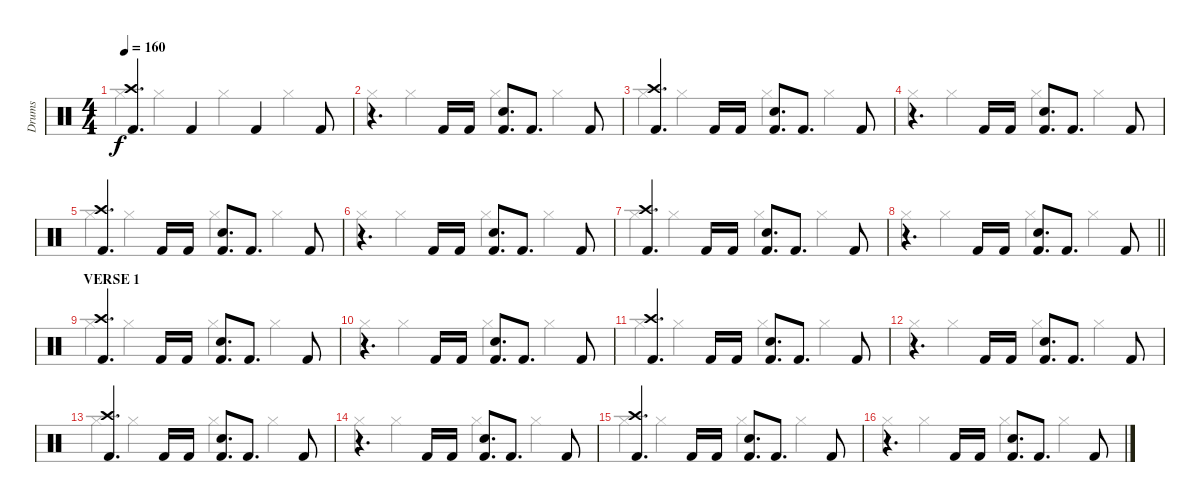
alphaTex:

\track ("Drums" "Drums") {instrument percussion}
\staff {score}
\articulation defaults
\voice
\ts (4 4)
\tempo 160
\clef neutral
\ks c
("Crash high (hit)" "Kick (hit) 2").4{d dy f} "Kick (hit) 2".4 "Kick (hit) 2".4 "Kick (hit) 2".8 |
r.4{d} "Kick (hit) 2".16 "Kick (hit) 2".16 ("Snare (hit) 2" "Kick (hit) 2").8{d} "Kick (hit) 2".8{d} "Kick (hit) 2".8 |
("Crash high (hit)" "Kick (hit) 2").4{d} "Kick (hit) 2".16 "Kick (hit) 2".16 ("Snare (hit) 2" "Kick (hit) 2").8{d} "Kick (hit) 2".8{d} "Kick (hit) 2".8 |
r.4{d} "Kick (hit) 2".16 "Kick (hit) 2".16 ("Snare (hit) 2" "Kick (hit) 2").8{d} "Kick (hit) 2".8{d} "Kick (hit) 2".8 |
("Crash high (hit)" "Kick (hit) 2").4{d} "Kick (hit) 2".16 "Kick (hit) 2".16 ("Snare (hit) 2" "Kick (hit) 2").8{d} "Kick (hit) 2".8{d} "Kick (hit) 2".8 |
r.4{d} "Kick (hit) 2".16 "Kick (hit) 2".16 ("Snare (hit) 2" "Kick (hit) 2").8{d} "Kick (hit) 2".8{d} "Kick (hit) 2".8 |
("Crash high (hit)" "Kick (hit) 2").4{d} "Kick (hit) 2".16 "Kick (hit) 2".16 ("Snare (hit) 2" "Kick (hit) 2").8{d} "Kick (hit) 2".8{d} "Kick (hit) 2".8 |
\barLineRight lightlight
r.4{d} "Kick (hit) 2".16 "Kick (hit) 2".16 ("Snare (hit) 2" "Kick (hit) 2").8{d} "Kick (hit) 2".8{d} "Kick (hit) 2".8 |
\section ("" "VERSE 1")
("Crash high (hit)" "Kick (hit) 2").4{d} "Kick (hit) 2".16 "Kick (hit) 2".16 ("Snare (hit) 2" "Kick (hit) 2").8{d} "Kick (hit) 2".8{d} "Kick (hit) 2".8 |
r.4{d} "Kick (hit) 2".16 "Kick (hit) 2".16 ("Snare (hit) 2" "Kick (hit) 2").8{d} "Kick (hit) 2".8{d} "Kick (hit) 2".8 |
("Crash high (hit)" "Kick (hit) 2").4{d} "Kick (hit) 2".16 "Kick (hit) 2".16 ("Snare (hit) 2" "Kick (hit) 2").8{d} "Kick (hit) 2".8{d} "Kick (hit) 2".8 |
r.4{d} "Kick (hit) 2".16 "Kick (hit) 2".16 ("Snare (hit) 2" "Kick (hit) 2").8{d} "Kick (hit) 2".8{d} "Kick (hit) 2".8 |
("Crash high (hit)" "Kick (hit) 2").4{d} "Kick (hit) 2".16 "Kick (hit) 2".16 ("Snare (hit) 2" "Kick (hit) 2").8{d} "Kick (hit) 2".8{d} "Kick (hit) 2".8 |
r.4{d} "Kick (hit) 2".16 "Kick (hit) 2".16 ("Snare (hit) 2" "Kick (hit) 2").8{d} "Kick (hit) 2".8{d} "Kick (hit) 2".8 |
("Crash high (hit)" "Kick (hit) 2").4{d} "Kick (hit) 2".16 "Kick (hit) 2".16 ("Snare (hit) 2" "Kick (hit) 2").8{d} "Kick (hit) 2".8{d} "Kick (hit) 2".8 |
r.4{d} "Kick (hit) 2".16 "Kick (hit) 2".16 ("Snare (hit) 2" "Kick (hit) 2").8{d} "Kick (hit) 2".8{d} "Kick (hit) 2".8
\voice
\clef neutral
\ottava regular
\simile none
\ks c "Hi-Hat (closed)".4{dy f} "Hi-Hat (closed)".4 "Hi-Hat (closed)".4 "Hi-Hat (closed)".4
|
"Hi-Hat (closed)".4 "Hi-Hat (closed)".4 "Hi-Hat (closed)".4 "Hi-Hat (closed)".4 |
"Hi-Hat (closed)".4 "Hi-Hat (closed)".4 "Hi-Hat (closed)".4 "Hi-Hat (closed)".4 |
"Hi-Hat (closed)".4 "Hi-Hat (closed)".4 "Hi-Hat (closed)".4 "Hi-Hat (closed)".4 |
"Hi-Hat (closed)".4 "Hi-Hat (closed)".4 "Hi-Hat (closed)".4 "Hi-Hat (closed)".4 |
"Hi-Hat (closed)".4 "Hi-Hat (closed)".4 "Hi-Hat (closed)".4 "Hi-Hat (closed)".4 |
"Hi-Hat (closed)".4 "Hi-Hat (closed)".4 "Hi-Hat (closed)".4 "Hi-Hat (closed)".4 |
\barLineRight lightlight "Hi-Hat (closed)".4 "Hi-Hat (closed)".4 "Hi-Hat (closed)".4 "Hi-Hat (closed)".4
|
"Hi-Hat (closed)".4 "Hi-Hat (closed)".4 "Hi-Hat (closed)".4 "Hi-Hat (closed)".4 |
"Hi-Hat (closed)".4 "Hi-Hat (closed)".4 "Hi-Hat (closed)".4 "Hi-Hat (closed)".4 |
"Hi-Hat (closed)".4 "Hi-Hat (closed)".4 "Hi-Hat (closed)".4 "Hi-Hat (closed)".4 |
"Hi-Hat (closed)".4 "Hi-Hat (closed)".4 "Hi-Hat (closed)".4 "Hi-Hat (closed)".4 |
"Hi-Hat (closed)".4 "Hi-Hat (closed)".4 "Hi-Hat (closed)".4 "Hi-Hat (closed)".4 |
"Hi-Hat (closed)".4 "Hi-Hat (closed)".4 "Hi-Hat (closed)".4 "Hi-Hat (closed)".4 |
"Hi-Hat (closed)".4 "Hi-Hat (closed)".4 "Hi-Hat (closed)".4 "Hi-Hat (closed)".4 |
"Hi-Hat (closed)".4 "Hi-Hat (closed)".4 "Hi-Hat (closed)".4 "Hi-Hat (closed)".4
